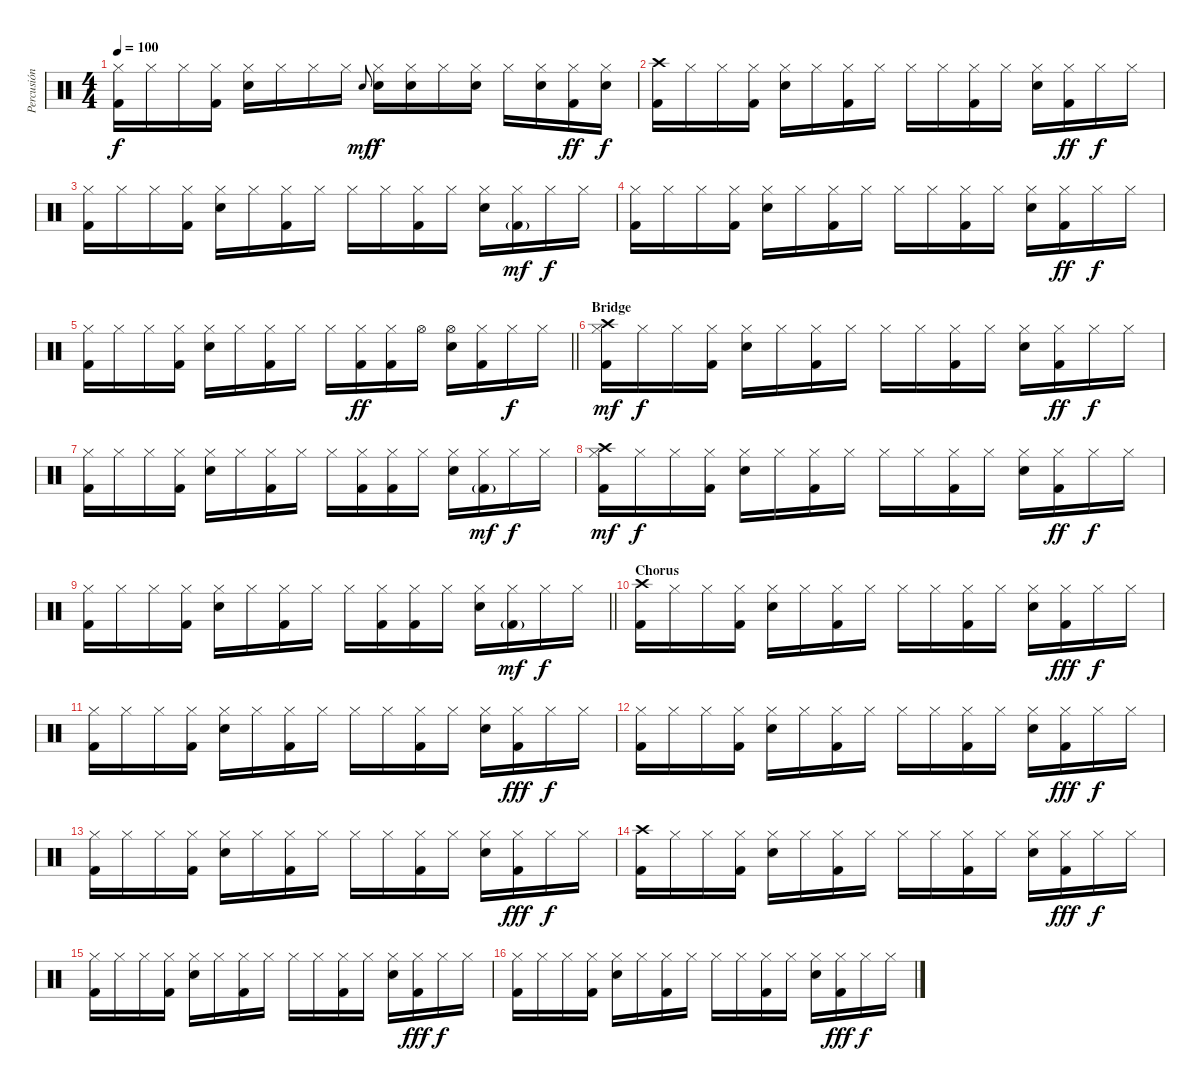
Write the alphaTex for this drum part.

\track ("Percusión" "Percusión") {instrument percussion}
\staff {score}
\articulation defaults
\ts (4 4)
\tempo 100
\clef neutral
\ks c
("Kick (hit) 2" "Hi-Hat (closed)").16{dy f} "Hi-Hat (closed)".16 "Hi-Hat (closed)".16 ("Kick (hit) 2" "Hi-Hat (closed)").16 ("Snare (hit) 2" "Hi-Hat (closed)").16 "Hi-Hat (closed)".16 "Hi-Hat (closed)".16 "Hi-Hat (closed)".16 "Snare (hit) 2".8{gr onbeat dy mf} ("Snare (hit) 2" "Hi-Hat (closed)").16{dy f} ("Snare (hit) 2" "Hi-Hat (closed)").16 "Hi-Hat (closed)".16 ("Snare (hit) 2" "Hi-Hat (closed)").16 "Hi-Hat (closed)".16 ("Snare (hit) 2" "Hi-Hat (closed)").16 ("Kick (hit) 2" "Hi-Hat (closed)").16{dy ff} ("Snare (hit) 2" "Hi-Hat (closed)").16{dy f} |
("Kick (hit) 2" "Crash high (hit)").16 "Hi-Hat (closed)".16 "Hi-Hat (closed)".16 ("Kick (hit) 2" "Hi-Hat (closed)").16 ("Snare (hit) 2" "Hi-Hat (closed)").16 "Hi-Hat (closed)".16 ("Kick (hit) 2" "Hi-Hat (closed)").16 "Hi-Hat (closed)".16 "Hi-Hat (closed)".16 "Hi-Hat (closed)".16 ("Kick (hit) 2" "Hi-Hat (closed)").16 "Hi-Hat (closed)".16 ("Snare (hit) 2" "Hi-Hat (closed)").16 ("Kick (hit) 2" "Hi-Hat (closed)").16{dy ff} "Hi-Hat (closed)".16{dy f} "Hi-Hat (closed)".16 |
("Kick (hit) 2" "Hi-Hat (closed)").16 "Hi-Hat (closed)".16 "Hi-Hat (closed)".16 ("Kick (hit) 2" "Hi-Hat (closed)").16 ("Snare (hit) 2" "Hi-Hat (closed)").16 "Hi-Hat (closed)".16 ("Kick (hit) 2" "Hi-Hat (closed)").16 "Hi-Hat (closed)".16 "Hi-Hat (closed)".16 "Hi-Hat (closed)".16 ("Kick (hit) 2" "Hi-Hat (closed)").16 "Hi-Hat (closed)".16 ("Snare (hit) 2" "Hi-Hat (closed)").16 ("Kick (hit) 2"{g} "Hi-Hat (closed)").16{dy mf} "Hi-Hat (closed)".16{dy f} "Hi-Hat (closed)".16 |
("Kick (hit) 2" "Hi-Hat (closed)").16 "Hi-Hat (closed)".16 "Hi-Hat (closed)".16 ("Kick (hit) 2" "Hi-Hat (closed)").16 ("Snare (hit) 2" "Hi-Hat (closed)").16 "Hi-Hat (closed)".16 ("Kick (hit) 2" "Hi-Hat (closed)").16 "Hi-Hat (closed)".16 "Hi-Hat (closed)".16 "Hi-Hat (closed)".16 ("Kick (hit) 2" "Hi-Hat (closed)").16 "Hi-Hat (closed)".16 ("Snare (hit) 2" "Hi-Hat (closed)").16 ("Kick (hit) 2" "Hi-Hat (closed)").16{dy ff} "Hi-Hat (closed)".16{dy f} "Hi-Hat (closed)".16 |
\barLineRight lightlight
("Kick (hit) 2" "Hi-Hat (closed)").16 "Hi-Hat (closed)".16 "Hi-Hat (closed)".16 ("Kick (hit) 2" "Hi-Hat (closed)").16 ("Snare (hit) 2" "Hi-Hat (closed)").16 "Hi-Hat (closed)".16 ("Kick (hit) 2" "Hi-Hat (closed)").16 "Hi-Hat (closed)".16 "Hi-Hat (closed)".16 ("Kick (hit) 2" "Hi-Hat (closed)").16{dy ff} ("Kick (hit) 2" "Hi-Hat (closed)").16 "Hi-Hat (open)".16 ("Snare (hit) 2" "Hi-Hat (open)").16 ("Kick (hit) 2" "Hi-Hat (closed)").16 "Hi-Hat (closed)".16{dy f} "Hi-Hat (closed)".16 |
\section ("" "Bridge")
("Crash high (hit)" "Kick (hit) 2" "Hi-Hat (closed)").16{dy mf} "Hi-Hat (closed)".16{dy f} "Hi-Hat (closed)".16 ("Kick (hit) 2" "Hi-Hat (closed)").16 ("Snare (hit) 2" "Hi-Hat (closed)").16 "Hi-Hat (closed)".16 ("Kick (hit) 2" "Hi-Hat (closed)").16 "Hi-Hat (closed)".16 "Hi-Hat (closed)".16 "Hi-Hat (closed)".16 ("Kick (hit) 2" "Hi-Hat (closed)").16 "Hi-Hat (closed)".16 ("Snare (hit) 2" "Hi-Hat (closed)").16 ("Kick (hit) 2" "Hi-Hat (closed)").16{dy ff} "Hi-Hat (closed)".16{dy f} "Hi-Hat (closed)".16 |
("Kick (hit) 2" "Hi-Hat (closed)").16 "Hi-Hat (closed)".16 "Hi-Hat (closed)".16 ("Kick (hit) 2" "Hi-Hat (closed)").16 ("Snare (hit) 2" "Hi-Hat (closed)").16 "Hi-Hat (closed)".16 ("Kick (hit) 2" "Hi-Hat (closed)").16 "Hi-Hat (closed)".16 "Hi-Hat (closed)".16 ("Kick (hit) 2" "Hi-Hat (closed)").16 ("Kick (hit) 2" "Hi-Hat (closed)").16 "Hi-Hat (closed)".16 ("Snare (hit) 2" "Hi-Hat (closed)").16 ("Kick (hit) 2"{g} "Hi-Hat (closed)").16{dy mf} "Hi-Hat (closed)".16{dy f} "Hi-Hat (closed)".16 |
("Crash high (hit)" "Kick (hit) 2" "Hi-Hat (closed)").16{dy mf} "Hi-Hat (closed)".16{dy f} "Hi-Hat (closed)".16 ("Kick (hit) 2" "Hi-Hat (closed)").16 ("Snare (hit) 2" "Hi-Hat (closed)").16 "Hi-Hat (closed)".16 ("Kick (hit) 2" "Hi-Hat (closed)").16 "Hi-Hat (closed)".16 "Hi-Hat (closed)".16 "Hi-Hat (closed)".16 ("Kick (hit) 2" "Hi-Hat (closed)").16 "Hi-Hat (closed)".16 ("Snare (hit) 2" "Hi-Hat (closed)").16 ("Kick (hit) 2" "Hi-Hat (closed)").16{dy ff} "Hi-Hat (closed)".16{dy f} "Hi-Hat (closed)".16 |
\barLineRight lightlight
("Kick (hit) 2" "Hi-Hat (closed)").16 "Hi-Hat (closed)".16 "Hi-Hat (closed)".16 ("Kick (hit) 2" "Hi-Hat (closed)").16 ("Snare (hit) 2" "Hi-Hat (closed)").16 "Hi-Hat (closed)".16 ("Kick (hit) 2" "Hi-Hat (closed)").16 "Hi-Hat (closed)".16 "Hi-Hat (closed)".16 ("Kick (hit) 2" "Hi-Hat (closed)").16 ("Kick (hit) 2" "Hi-Hat (closed)").16 "Hi-Hat (closed)".16 ("Snare (hit) 2" "Hi-Hat (closed)").16 ("Kick (hit) 2"{g} "Hi-Hat (closed)").16{dy mf} "Hi-Hat (closed)".16{dy f} "Hi-Hat (closed)".16 |
\section ("" "Chorus")
("Kick (hit) 2" "Crash high (hit)").16 "Hi-Hat (closed)".16 "Hi-Hat (closed)".16 ("Kick (hit) 2" "Hi-Hat (closed)").16 ("Snare (hit) 2" "Hi-Hat (closed)").16 "Hi-Hat (closed)".16 ("Kick (hit) 2" "Hi-Hat (closed)").16 "Hi-Hat (closed)".16 "Hi-Hat (closed)".16 "Hi-Hat (closed)".16 ("Kick (hit) 2" "Hi-Hat (closed)").16 "Hi-Hat (closed)".16 ("Snare (hit) 2" "Hi-Hat (closed)").16 ("Kick (hit) 2" "Hi-Hat (closed)").16{dy fff} "Hi-Hat (closed)".16{dy f} "Hi-Hat (closed)".16 |
("Kick (hit) 2" "Hi-Hat (closed)").16 "Hi-Hat (closed)".16 "Hi-Hat (closed)".16 ("Kick (hit) 2" "Hi-Hat (closed)").16 ("Snare (hit) 2" "Hi-Hat (closed)").16 "Hi-Hat (closed)".16 ("Kick (hit) 2" "Hi-Hat (closed)").16 "Hi-Hat (closed)".16 "Hi-Hat (closed)".16 "Hi-Hat (closed)".16 ("Kick (hit) 2" "Hi-Hat (closed)").16 "Hi-Hat (closed)".16 ("Snare (hit) 2" "Hi-Hat (closed)").16 ("Kick (hit) 2" "Hi-Hat (closed)").16{dy fff} "Hi-Hat (closed)".16{dy f} "Hi-Hat (closed)".16 |
("Kick (hit) 2" "Hi-Hat (closed)").16 "Hi-Hat (closed)".16 "Hi-Hat (closed)".16 ("Kick (hit) 2" "Hi-Hat (closed)").16 ("Snare (hit) 2" "Hi-Hat (closed)").16 "Hi-Hat (closed)".16 ("Kick (hit) 2" "Hi-Hat (closed)").16 "Hi-Hat (closed)".16 "Hi-Hat (closed)".16 "Hi-Hat (closed)".16 ("Kick (hit) 2" "Hi-Hat (closed)").16 "Hi-Hat (closed)".16 ("Snare (hit) 2" "Hi-Hat (closed)").16 ("Kick (hit) 2" "Hi-Hat (closed)").16{dy fff} "Hi-Hat (closed)".16{dy f} "Hi-Hat (closed)".16 |
("Kick (hit) 2" "Hi-Hat (closed)").16 "Hi-Hat (closed)".16 "Hi-Hat (closed)".16 ("Kick (hit) 2" "Hi-Hat (closed)").16 ("Snare (hit) 2" "Hi-Hat (closed)").16 "Hi-Hat (closed)".16 ("Kick (hit) 2" "Hi-Hat (closed)").16 "Hi-Hat (closed)".16 "Hi-Hat (closed)".16 "Hi-Hat (closed)".16 ("Kick (hit) 2" "Hi-Hat (closed)").16 "Hi-Hat (closed)".16 ("Snare (hit) 2" "Hi-Hat (closed)").16 ("Kick (hit) 2" "Hi-Hat (closed)").16{dy fff} "Hi-Hat (closed)".16{dy f} "Hi-Hat (closed)".16 |
("Kick (hit) 2" "Crash high (hit)").16 "Hi-Hat (closed)".16 "Hi-Hat (closed)".16 ("Kick (hit) 2" "Hi-Hat (closed)").16 ("Snare (hit) 2" "Hi-Hat (closed)").16 "Hi-Hat (closed)".16 ("Kick (hit) 2" "Hi-Hat (closed)").16 "Hi-Hat (closed)".16 "Hi-Hat (closed)".16 "Hi-Hat (closed)".16 ("Kick (hit) 2" "Hi-Hat (closed)").16 "Hi-Hat (closed)".16 ("Snare (hit) 2" "Hi-Hat (closed)").16 ("Kick (hit) 2" "Hi-Hat (closed)").16{dy fff} "Hi-Hat (closed)".16{dy f} "Hi-Hat (closed)".16 |
("Kick (hit) 2" "Hi-Hat (closed)").16 "Hi-Hat (closed)".16 "Hi-Hat (closed)".16 ("Kick (hit) 2" "Hi-Hat (closed)").16 ("Snare (hit) 2" "Hi-Hat (closed)").16 "Hi-Hat (closed)".16 ("Kick (hit) 2" "Hi-Hat (closed)").16 "Hi-Hat (closed)".16 "Hi-Hat (closed)".16 "Hi-Hat (closed)".16 ("Kick (hit) 2" "Hi-Hat (closed)").16 "Hi-Hat (closed)".16 ("Snare (hit) 2" "Hi-Hat (closed)").16 ("Kick (hit) 2" "Hi-Hat (closed)").16{dy fff} "Hi-Hat (closed)".16{dy f} "Hi-Hat (closed)".16 |
("Kick (hit) 2" "Hi-Hat (closed)").16 "Hi-Hat (closed)".16 "Hi-Hat (closed)".16 ("Kick (hit) 2" "Hi-Hat (closed)").16 ("Snare (hit) 2" "Hi-Hat (closed)").16 "Hi-Hat (closed)".16 ("Kick (hit) 2" "Hi-Hat (closed)").16 "Hi-Hat (closed)".16 "Hi-Hat (closed)".16 "Hi-Hat (closed)".16 ("Kick (hit) 2" "Hi-Hat (closed)").16 "Hi-Hat (closed)".16 ("Snare (hit) 2" "Hi-Hat (closed)").16 ("Kick (hit) 2" "Hi-Hat (closed)").16{dy fff} "Hi-Hat (closed)".16{dy f} "Hi-Hat (closed)".16
